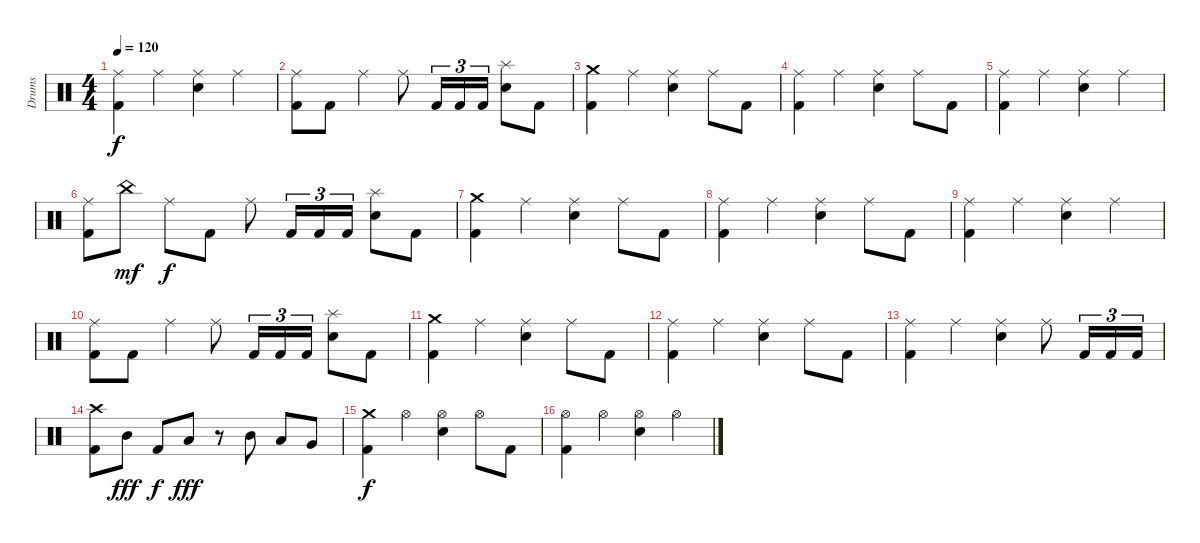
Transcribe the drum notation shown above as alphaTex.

\track ("Drums" "Drums") {instrument percussion}
\staff {score}
\articulation defaults
\ts (4 4)
\tempo 120
\clef neutral
\ks c
("Kick (hit) 2" "Ride (middle)").4{dy f} "Ride (middle)".4 ("Snare (hit) 2" "Ride (middle)").4 "Ride (middle)".4 |
("Kick (hit) 2" "Ride (middle)").8 "Kick (hit) 2".8 "Ride (middle)".4 "Ride (middle)".8 "Kick (hit) 2".16{tu (3 2)} "Kick (hit) 2".16{tu (3 2)} "Kick (hit) 2".16{tu (3 2)} ("Snare (hit) 2" "Splash (hit)").8 "Kick (hit) 2".8 |
("Kick (hit) 2" "Crash medium (hit)").4 "Ride (middle)".4 ("Snare (hit) 2" "Ride (middle)").4 "Ride (middle)".8 "Kick (hit) 2".8 |
("Kick (hit) 2" "Ride (middle)").4 "Ride (middle)".4 ("Snare (hit) 2" "Ride (middle)").4 "Ride (middle)".8 "Kick (hit) 2".8 |
("Kick (hit) 2" "Ride (middle)").4 "Ride (middle)".4 ("Snare (hit) 2" "Ride (middle)").4 "Ride (middle)".4 |
("Kick (hit) 2" "Ride (middle)").8 "China (hit)".8{dy mf} "Ride (middle)".8{dy f} "Kick (hit) 2".8 "Ride (middle)".8 "Kick (hit) 2".16{tu (3 2)} "Kick (hit) 2".16{tu (3 2)} "Kick (hit) 2".16{tu (3 2)} ("Snare (hit) 2" "Splash (hit)").8 "Kick (hit) 2".8 |
("Kick (hit) 2" "Crash medium (hit)").4 "Ride (middle)".4 ("Snare (hit) 2" "Ride (middle)").4 "Ride (middle)".8 "Kick (hit) 2".8 |
("Kick (hit) 2" "Ride (middle)").4 "Ride (middle)".4 ("Snare (hit) 2" "Ride (middle)").4 "Ride (middle)".8 "Kick (hit) 2".8 |
("Kick (hit) 2" "Ride (middle)").4 "Ride (middle)".4 ("Snare (hit) 2" "Ride (middle)").4 "Ride (middle)".4 |
("Kick (hit) 2" "Ride (middle)").8 "Kick (hit) 2".8 "Ride (middle)".4 "Ride (middle)".8 "Kick (hit) 2".16{tu (3 2)} "Kick (hit) 2".16{tu (3 2)} "Kick (hit) 2".16{tu (3 2)} ("Snare (hit) 2" "Splash (hit)").8 "Kick (hit) 2".8 |
("Kick (hit) 2" "Crash medium (hit)").4 "Ride (middle)".4 ("Snare (hit) 2" "Ride (middle)").4 "Ride (middle)".8 "Kick (hit) 2".8 |
("Kick (hit) 2" "Ride (middle)").4 "Ride (middle)".4 ("Snare (hit) 2" "Ride (middle)").4 "Ride (middle)".8 "Kick (hit) 2".8 |
("Kick (hit) 2" "Ride (middle)").4 "Ride (middle)".4 ("Snare (hit) 2" "Ride (middle)").4 "Ride (middle)".8 "Kick (hit) 2".16{tu (3 2)} "Kick (hit) 2".16{tu (3 2)} "Kick (hit) 2".16{tu (3 2)} |
("Kick (hit) 2" "Crash high (hit)").8 "Mid Tom (hit)".8{dy fff} "Kick (hit) 2".8{dy f} "Low Tom (hit)".8{dy fff} r.8 "Mid Tom (hit)".8 "Low Tom (hit)".8 "Very Low Tom (hit)".8 |
("Kick (hit) 2" "Crash medium (hit)").4{dy f} "Hi-Hat (open)".4 ("Snare (hit) 2" "Hi-Hat (open)").4 "Hi-Hat (open)".8 "Kick (hit) 2".8 |
("Kick (hit) 2" "Hi-Hat (open)").4 "Hi-Hat (open)".4 ("Snare (hit) 2" "Hi-Hat (open)").4 "Hi-Hat (open)".4
